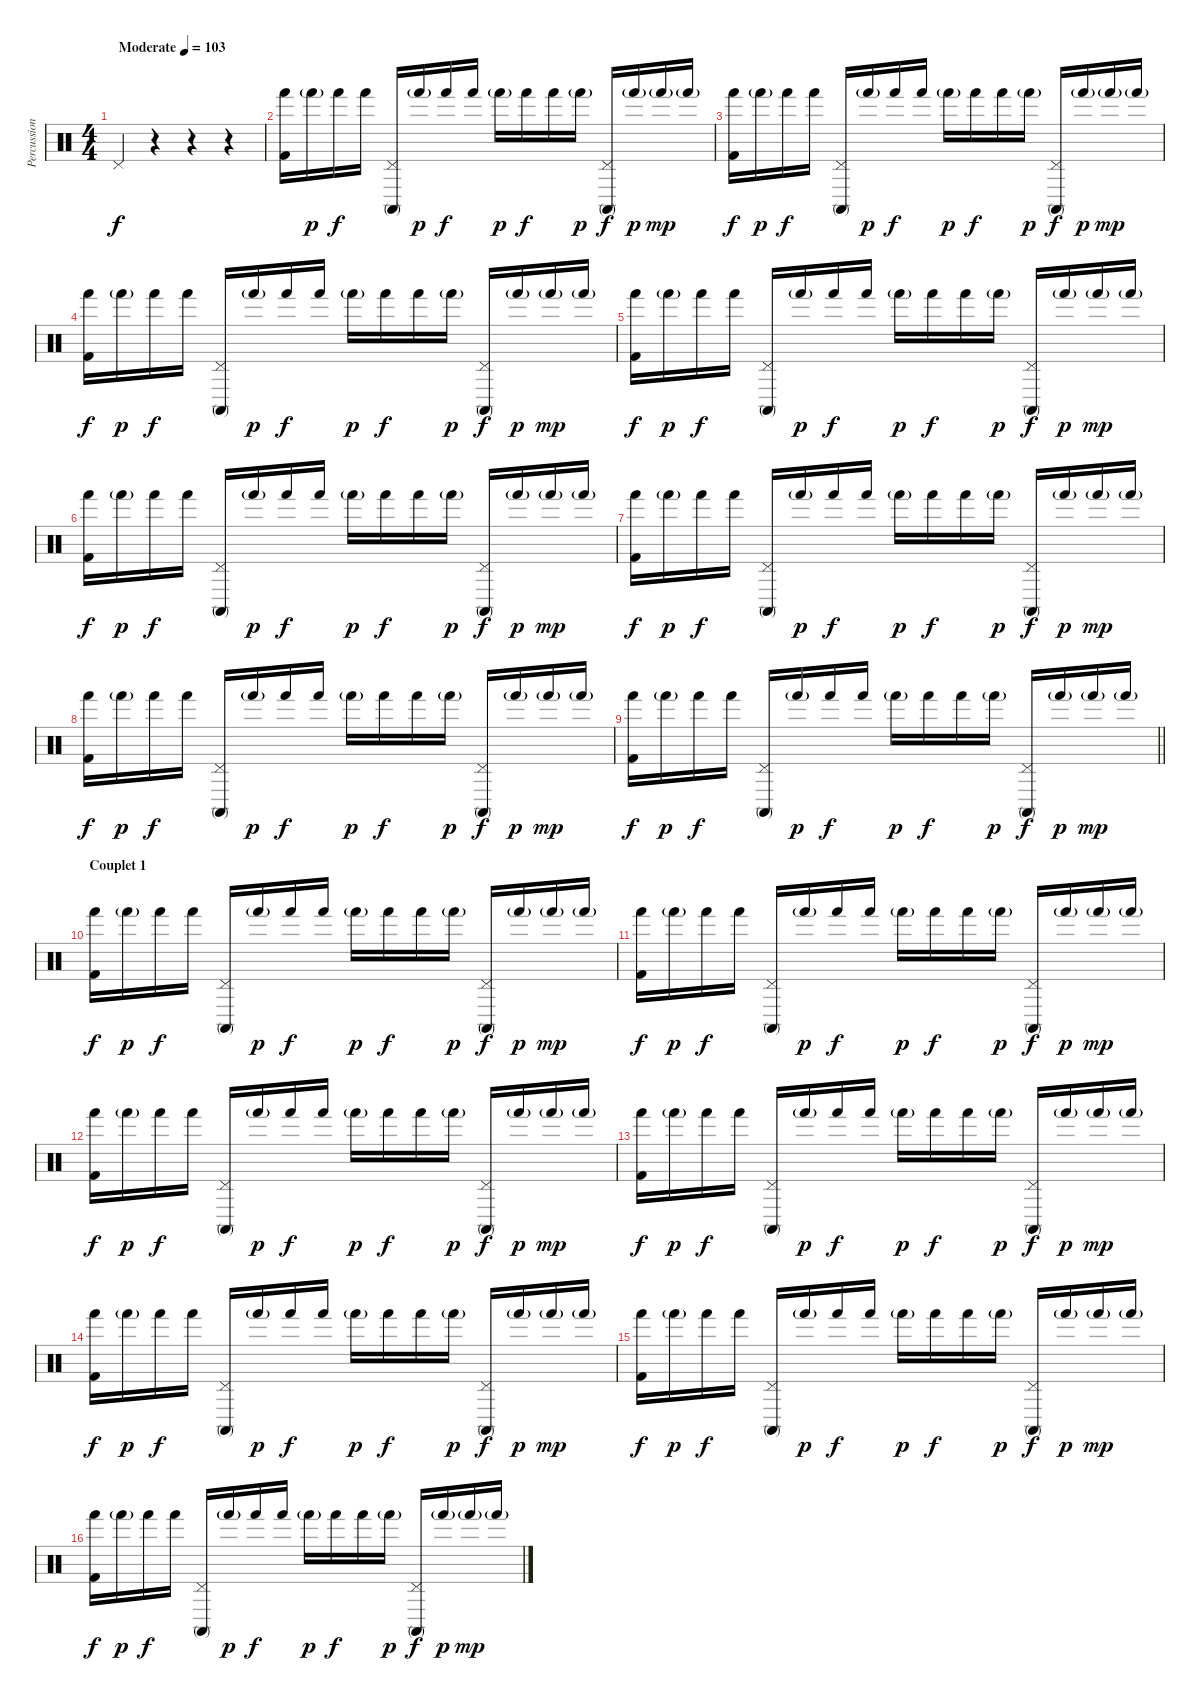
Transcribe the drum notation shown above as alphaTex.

\track ("Percussions" "Percussion") {instrument percussion}
\staff {score}
\articulation defaults
\ts (4 4)
\tempo (103 "Moderate")
\clef neutral
\ks c "Pedal Hi-Hat (hit)".4{dy f}
r.4 r.4 r.4 |
("Hand (hit)" "Kick (hit) 2").16 "Hand (hit)"{g}.16{dy p} "Hand (hit)".16{dy f} "Hand (hit)".16 ("Pedal Hi-Hat (hit)" "Conga high (mute)").16 "Hand (hit)"{g}.16{dy p} "Hand (hit)".16{dy f} "Hand (hit)".16 "Hand (hit)"{g}.16{dy p} "Hand (hit)".16{dy f} "Hand (hit)".16 "Hand (hit)"{g}.16{dy p} ("Pedal Hi-Hat (hit)" "Conga high (mute)").16{dy f} "Hand (hit)"{g}.16{dy p} "Hand (hit)"{g}.16{dy mp} "Hand (hit)"{g}.16 |
("Hand (hit)" "Kick (hit) 2").16{dy f} "Hand (hit)"{g}.16{dy p} "Hand (hit)".16{dy f} "Hand (hit)".16 ("Pedal Hi-Hat (hit)" "Conga high (mute)").16 "Hand (hit)"{g}.16{dy p} "Hand (hit)".16{dy f} "Hand (hit)".16 "Hand (hit)"{g}.16{dy p} "Hand (hit)".16{dy f} "Hand (hit)".16 "Hand (hit)"{g}.16{dy p} ("Pedal Hi-Hat (hit)" "Conga high (mute)").16{dy f} "Hand (hit)"{g}.16{dy p} "Hand (hit)"{g}.16{dy mp} "Hand (hit)"{g}.16 |
("Hand (hit)" "Kick (hit) 2").16{dy f} "Hand (hit)"{g}.16{dy p} "Hand (hit)".16{dy f} "Hand (hit)".16 ("Pedal Hi-Hat (hit)" "Conga high (mute)").16 "Hand (hit)"{g}.16{dy p} "Hand (hit)".16{dy f} "Hand (hit)".16 "Hand (hit)"{g}.16{dy p} "Hand (hit)".16{dy f} "Hand (hit)".16 "Hand (hit)"{g}.16{dy p} ("Pedal Hi-Hat (hit)" "Conga high (mute)").16{dy f} "Hand (hit)"{g}.16{dy p} "Hand (hit)"{g}.16{dy mp} "Hand (hit)"{g}.16 |
("Hand (hit)" "Kick (hit) 2").16{dy f} "Hand (hit)"{g}.16{dy p} "Hand (hit)".16{dy f} "Hand (hit)".16 ("Pedal Hi-Hat (hit)" "Conga high (mute)").16 "Hand (hit)"{g}.16{dy p} "Hand (hit)".16{dy f} "Hand (hit)".16 "Hand (hit)"{g}.16{dy p} "Hand (hit)".16{dy f} "Hand (hit)".16 "Hand (hit)"{g}.16{dy p} ("Pedal Hi-Hat (hit)" "Conga high (mute)").16{dy f} "Hand (hit)"{g}.16{dy p} "Hand (hit)"{g}.16{dy mp} "Hand (hit)"{g}.16 |
("Hand (hit)" "Kick (hit) 2").16{dy f} "Hand (hit)"{g}.16{dy p} "Hand (hit)".16{dy f} "Hand (hit)".16 ("Pedal Hi-Hat (hit)" "Conga high (mute)").16 "Hand (hit)"{g}.16{dy p} "Hand (hit)".16{dy f} "Hand (hit)".16 "Hand (hit)"{g}.16{dy p} "Hand (hit)".16{dy f} "Hand (hit)".16 "Hand (hit)"{g}.16{dy p} ("Pedal Hi-Hat (hit)" "Conga high (mute)").16{dy f} "Hand (hit)"{g}.16{dy p} "Hand (hit)"{g}.16{dy mp} "Hand (hit)"{g}.16 |
("Hand (hit)" "Kick (hit) 2").16{dy f} "Hand (hit)"{g}.16{dy p} "Hand (hit)".16{dy f} "Hand (hit)".16 ("Pedal Hi-Hat (hit)" "Conga high (mute)").16 "Hand (hit)"{g}.16{dy p} "Hand (hit)".16{dy f} "Hand (hit)".16 "Hand (hit)"{g}.16{dy p} "Hand (hit)".16{dy f} "Hand (hit)".16 "Hand (hit)"{g}.16{dy p} ("Pedal Hi-Hat (hit)" "Conga high (mute)").16{dy f} "Hand (hit)"{g}.16{dy p} "Hand (hit)"{g}.16{dy mp} "Hand (hit)"{g}.16 |
("Hand (hit)" "Kick (hit) 2").16{dy f} "Hand (hit)"{g}.16{dy p} "Hand (hit)".16{dy f} "Hand (hit)".16 ("Pedal Hi-Hat (hit)" "Conga high (mute)").16 "Hand (hit)"{g}.16{dy p} "Hand (hit)".16{dy f} "Hand (hit)".16 "Hand (hit)"{g}.16{dy p} "Hand (hit)".16{dy f} "Hand (hit)".16 "Hand (hit)"{g}.16{dy p} ("Pedal Hi-Hat (hit)" "Conga high (mute)").16{dy f} "Hand (hit)"{g}.16{dy p} "Hand (hit)"{g}.16{dy mp} "Hand (hit)"{g}.16 |
\barLineRight lightlight
("Hand (hit)" "Kick (hit) 2").16{dy f} "Hand (hit)"{g}.16{dy p} "Hand (hit)".16{dy f} "Hand (hit)".16 ("Pedal Hi-Hat (hit)" "Conga high (mute)").16 "Hand (hit)"{g}.16{dy p} "Hand (hit)".16{dy f} "Hand (hit)".16 "Hand (hit)"{g}.16{dy p} "Hand (hit)".16{dy f} "Hand (hit)".16 "Hand (hit)"{g}.16{dy p} ("Pedal Hi-Hat (hit)" "Conga high (mute)").16{dy f} "Hand (hit)"{g}.16{dy p} "Hand (hit)"{g}.16{dy mp} "Hand (hit)"{g}.16 |
\section ("" "Couplet 1")
("Hand (hit)" "Kick (hit) 2").16{dy f} "Hand (hit)"{g}.16{dy p} "Hand (hit)".16{dy f} "Hand (hit)".16 ("Pedal Hi-Hat (hit)" "Conga high (mute)").16 "Hand (hit)"{g}.16{dy p} "Hand (hit)".16{dy f} "Hand (hit)".16 "Hand (hit)"{g}.16{dy p} "Hand (hit)".16{dy f} "Hand (hit)".16 "Hand (hit)"{g}.16{dy p} ("Pedal Hi-Hat (hit)" "Conga high (mute)").16{dy f} "Hand (hit)"{g}.16{dy p} "Hand (hit)"{g}.16{dy mp} "Hand (hit)"{g}.16 |
("Hand (hit)" "Kick (hit) 2").16{dy f} "Hand (hit)"{g}.16{dy p} "Hand (hit)".16{dy f} "Hand (hit)".16 ("Pedal Hi-Hat (hit)" "Conga high (mute)").16 "Hand (hit)"{g}.16{dy p} "Hand (hit)".16{dy f} "Hand (hit)".16 "Hand (hit)"{g}.16{dy p} "Hand (hit)".16{dy f} "Hand (hit)".16 "Hand (hit)"{g}.16{dy p} ("Pedal Hi-Hat (hit)" "Conga high (mute)").16{dy f} "Hand (hit)"{g}.16{dy p} "Hand (hit)"{g}.16{dy mp} "Hand (hit)"{g}.16 |
("Hand (hit)" "Kick (hit) 2").16{dy f} "Hand (hit)"{g}.16{dy p} "Hand (hit)".16{dy f} "Hand (hit)".16 ("Pedal Hi-Hat (hit)" "Conga high (mute)").16 "Hand (hit)"{g}.16{dy p} "Hand (hit)".16{dy f} "Hand (hit)".16 "Hand (hit)"{g}.16{dy p} "Hand (hit)".16{dy f} "Hand (hit)".16 "Hand (hit)"{g}.16{dy p} ("Pedal Hi-Hat (hit)" "Conga high (mute)").16{dy f} "Hand (hit)"{g}.16{dy p} "Hand (hit)"{g}.16{dy mp} "Hand (hit)"{g}.16 |
("Hand (hit)" "Kick (hit) 2").16{dy f} "Hand (hit)"{g}.16{dy p} "Hand (hit)".16{dy f} "Hand (hit)".16 ("Pedal Hi-Hat (hit)" "Conga high (mute)").16 "Hand (hit)"{g}.16{dy p} "Hand (hit)".16{dy f} "Hand (hit)".16 "Hand (hit)"{g}.16{dy p} "Hand (hit)".16{dy f} "Hand (hit)".16 "Hand (hit)"{g}.16{dy p} ("Pedal Hi-Hat (hit)" "Conga high (mute)").16{dy f} "Hand (hit)"{g}.16{dy p} "Hand (hit)"{g}.16{dy mp} "Hand (hit)"{g}.16 |
("Hand (hit)" "Kick (hit) 2").16{dy f} "Hand (hit)"{g}.16{dy p} "Hand (hit)".16{dy f} "Hand (hit)".16 ("Pedal Hi-Hat (hit)" "Conga high (mute)").16 "Hand (hit)"{g}.16{dy p} "Hand (hit)".16{dy f} "Hand (hit)".16 "Hand (hit)"{g}.16{dy p} "Hand (hit)".16{dy f} "Hand (hit)".16 "Hand (hit)"{g}.16{dy p} ("Pedal Hi-Hat (hit)" "Conga high (mute)").16{dy f} "Hand (hit)"{g}.16{dy p} "Hand (hit)"{g}.16{dy mp} "Hand (hit)"{g}.16 |
("Hand (hit)" "Kick (hit) 2").16{dy f} "Hand (hit)"{g}.16{dy p} "Hand (hit)".16{dy f} "Hand (hit)".16 ("Pedal Hi-Hat (hit)" "Conga high (mute)").16 "Hand (hit)"{g}.16{dy p} "Hand (hit)".16{dy f} "Hand (hit)".16 "Hand (hit)"{g}.16{dy p} "Hand (hit)".16{dy f} "Hand (hit)".16 "Hand (hit)"{g}.16{dy p} ("Pedal Hi-Hat (hit)" "Conga high (mute)").16{dy f} "Hand (hit)"{g}.16{dy p} "Hand (hit)"{g}.16{dy mp} "Hand (hit)"{g}.16 |
("Hand (hit)" "Kick (hit) 2").16{dy f} "Hand (hit)"{g}.16{dy p} "Hand (hit)".16{dy f} "Hand (hit)".16 ("Pedal Hi-Hat (hit)" "Conga high (mute)").16 "Hand (hit)"{g}.16{dy p} "Hand (hit)".16{dy f} "Hand (hit)".16 "Hand (hit)"{g}.16{dy p} "Hand (hit)".16{dy f} "Hand (hit)".16 "Hand (hit)"{g}.16{dy p} ("Pedal Hi-Hat (hit)" "Conga high (mute)").16{dy f} "Hand (hit)"{g}.16{dy p} "Hand (hit)"{g}.16{dy mp} "Hand (hit)"{g}.16
